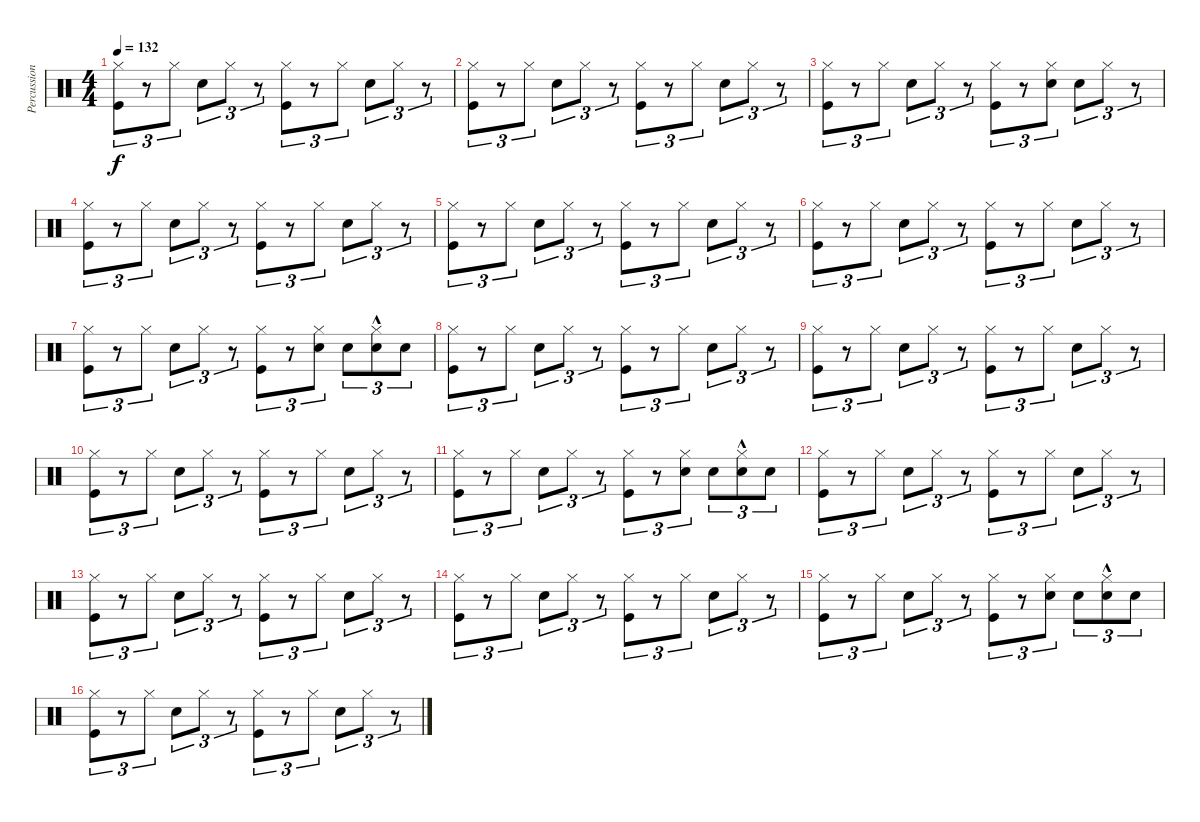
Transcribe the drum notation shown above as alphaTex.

\track ("Percussions" "Percussion") {instrument percussion}
\staff {score}
\articulation defaults
\ts (4 4)
\tempo 132
\clef neutral
\ks c
("Kick (hit)" "Hi-Hat (closed)").8{tu (3 2) dy f} r.8{tu (3 2)} "Hi-Hat (closed)".8{tu (3 2)} "Snare (hit) 2".8{tu (3 2)} "Hi-Hat (closed)".8{tu (3 2)} r.8{tu (3 2)} ("Kick (hit)" "Hi-Hat (closed)").8{tu (3 2)} r.8{tu (3 2)} "Hi-Hat (closed)".8{tu (3 2)} "Snare (hit) 2".8{tu (3 2)} "Hi-Hat (closed)".8{tu (3 2)} r.8{tu (3 2)} |
("Kick (hit)" "Hi-Hat (closed)").8{tu (3 2)} r.8{tu (3 2)} "Hi-Hat (closed)".8{tu (3 2)} "Snare (hit) 2".8{tu (3 2)} "Hi-Hat (closed)".8{tu (3 2)} r.8{tu (3 2)} ("Kick (hit)" "Hi-Hat (closed)").8{tu (3 2)} r.8{tu (3 2)} "Hi-Hat (closed)".8{tu (3 2)} "Snare (hit) 2".8{tu (3 2)} "Hi-Hat (closed)".8{tu (3 2)} r.8{tu (3 2)} |
("Kick (hit)" "Hi-Hat (closed)").8{tu (3 2)} r.8{tu (3 2)} "Hi-Hat (closed)".8{tu (3 2)} "Snare (hit) 2".8{tu (3 2)} "Hi-Hat (closed)".8{tu (3 2)} r.8{tu (3 2)} ("Kick (hit)" "Hi-Hat (closed)").8{tu (3 2)} r.8{tu (3 2)} ("Hi-Hat (closed)" "Snare (hit) 2").8{tu (3 2)} "Snare (hit) 2".8{tu (3 2)} "Hi-Hat (closed)".8{tu (3 2)} r.8{tu (3 2)} |
("Kick (hit)" "Hi-Hat (closed)").8{tu (3 2)} r.8{tu (3 2)} "Hi-Hat (closed)".8{tu (3 2)} "Snare (hit) 2".8{tu (3 2)} "Hi-Hat (closed)".8{tu (3 2)} r.8{tu (3 2)} ("Kick (hit)" "Hi-Hat (closed)").8{tu (3 2)} r.8{tu (3 2)} "Hi-Hat (closed)".8{tu (3 2)} "Snare (hit) 2".8{tu (3 2)} "Hi-Hat (closed)".8{tu (3 2)} r.8{tu (3 2)} |
("Kick (hit)" "Hi-Hat (closed)").8{tu (3 2)} r.8{tu (3 2)} "Hi-Hat (closed)".8{tu (3 2)} "Snare (hit) 2".8{tu (3 2)} "Hi-Hat (closed)".8{tu (3 2)} r.8{tu (3 2)} ("Kick (hit)" "Hi-Hat (closed)").8{tu (3 2)} r.8{tu (3 2)} "Hi-Hat (closed)".8{tu (3 2)} "Snare (hit) 2".8{tu (3 2)} "Hi-Hat (closed)".8{tu (3 2)} r.8{tu (3 2)} |
("Kick (hit)" "Hi-Hat (closed)").8{tu (3 2)} r.8{tu (3 2)} "Hi-Hat (closed)".8{tu (3 2)} "Snare (hit) 2".8{tu (3 2)} "Hi-Hat (closed)".8{tu (3 2)} r.8{tu (3 2)} ("Kick (hit)" "Hi-Hat (closed)").8{tu (3 2)} r.8{tu (3 2)} "Hi-Hat (closed)".8{tu (3 2)} "Snare (hit) 2".8{tu (3 2)} "Hi-Hat (closed)".8{tu (3 2)} r.8{tu (3 2)} |
("Kick (hit)" "Hi-Hat (closed)").8{tu (3 2)} r.8{tu (3 2)} "Hi-Hat (closed)".8{tu (3 2)} "Snare (hit) 2".8{tu (3 2)} "Hi-Hat (closed)".8{tu (3 2)} r.8{tu (3 2)} ("Kick (hit)" "Hi-Hat (closed)").8{tu (3 2)} r.8{tu (3 2)} ("Hi-Hat (closed)" "Snare (hit) 2").8{tu (3 2)} "Snare (hit) 2".8{tu (3 2)} ("Hi-Hat (closed)"{hac} "Snare (hit) 2"{hac}).8{tu (3 2)} "Snare (hit) 2".8{tu (3 2)} |
("Kick (hit)" "Hi-Hat (closed)").8{tu (3 2)} r.8{tu (3 2)} "Hi-Hat (closed)".8{tu (3 2)} "Snare (hit) 2".8{tu (3 2)} "Hi-Hat (closed)".8{tu (3 2)} r.8{tu (3 2)} ("Kick (hit)" "Hi-Hat (closed)").8{tu (3 2)} r.8{tu (3 2)} "Hi-Hat (closed)".8{tu (3 2)} "Snare (hit) 2".8{tu (3 2)} "Hi-Hat (closed)".8{tu (3 2)} r.8{tu (3 2)} |
("Kick (hit)" "Hi-Hat (closed)").8{tu (3 2)} r.8{tu (3 2)} "Hi-Hat (closed)".8{tu (3 2)} "Snare (hit) 2".8{tu (3 2)} "Hi-Hat (closed)".8{tu (3 2)} r.8{tu (3 2)} ("Kick (hit)" "Hi-Hat (closed)").8{tu (3 2)} r.8{tu (3 2)} "Hi-Hat (closed)".8{tu (3 2)} "Snare (hit) 2".8{tu (3 2)} "Hi-Hat (closed)".8{tu (3 2)} r.8{tu (3 2)} |
("Kick (hit)" "Hi-Hat (closed)").8{tu (3 2)} r.8{tu (3 2)} "Hi-Hat (closed)".8{tu (3 2)} "Snare (hit) 2".8{tu (3 2)} "Hi-Hat (closed)".8{tu (3 2)} r.8{tu (3 2)} ("Kick (hit)" "Hi-Hat (closed)").8{tu (3 2)} r.8{tu (3 2)} "Hi-Hat (closed)".8{tu (3 2)} "Snare (hit) 2".8{tu (3 2)} "Hi-Hat (closed)".8{tu (3 2)} r.8{tu (3 2)} |
("Kick (hit)" "Hi-Hat (closed)").8{tu (3 2)} r.8{tu (3 2)} "Hi-Hat (closed)".8{tu (3 2)} "Snare (hit) 2".8{tu (3 2)} "Hi-Hat (closed)".8{tu (3 2)} r.8{tu (3 2)} ("Kick (hit)" "Hi-Hat (closed)").8{tu (3 2)} r.8{tu (3 2)} ("Hi-Hat (closed)" "Snare (hit) 2").8{tu (3 2)} "Snare (hit) 2".8{tu (3 2)} ("Hi-Hat (closed)"{hac} "Snare (hit) 2"{hac}).8{tu (3 2)} "Snare (hit) 2".8{tu (3 2)} |
("Kick (hit)" "Hi-Hat (closed)").8{tu (3 2)} r.8{tu (3 2)} "Hi-Hat (closed)".8{tu (3 2)} "Snare (hit) 2".8{tu (3 2)} "Hi-Hat (closed)".8{tu (3 2)} r.8{tu (3 2)} ("Kick (hit)" "Hi-Hat (closed)").8{tu (3 2)} r.8{tu (3 2)} "Hi-Hat (closed)".8{tu (3 2)} "Snare (hit) 2".8{tu (3 2)} "Hi-Hat (closed)".8{tu (3 2)} r.8{tu (3 2)} |
("Kick (hit)" "Hi-Hat (closed)").8{tu (3 2)} r.8{tu (3 2)} "Hi-Hat (closed)".8{tu (3 2)} "Snare (hit) 2".8{tu (3 2)} "Hi-Hat (closed)".8{tu (3 2)} r.8{tu (3 2)} ("Kick (hit)" "Hi-Hat (closed)").8{tu (3 2)} r.8{tu (3 2)} "Hi-Hat (closed)".8{tu (3 2)} "Snare (hit) 2".8{tu (3 2)} "Hi-Hat (closed)".8{tu (3 2)} r.8{tu (3 2)} |
("Kick (hit)" "Hi-Hat (closed)").8{tu (3 2)} r.8{tu (3 2)} "Hi-Hat (closed)".8{tu (3 2)} "Snare (hit) 2".8{tu (3 2)} "Hi-Hat (closed)".8{tu (3 2)} r.8{tu (3 2)} ("Kick (hit)" "Hi-Hat (closed)").8{tu (3 2)} r.8{tu (3 2)} "Hi-Hat (closed)".8{tu (3 2)} "Snare (hit) 2".8{tu (3 2)} "Hi-Hat (closed)".8{tu (3 2)} r.8{tu (3 2)} |
("Kick (hit)" "Hi-Hat (closed)").8{tu (3 2)} r.8{tu (3 2)} "Hi-Hat (closed)".8{tu (3 2)} "Snare (hit) 2".8{tu (3 2)} "Hi-Hat (closed)".8{tu (3 2)} r.8{tu (3 2)} ("Kick (hit)" "Hi-Hat (closed)").8{tu (3 2)} r.8{tu (3 2)} ("Hi-Hat (closed)" "Snare (hit) 2").8{tu (3 2)} "Snare (hit) 2".8{tu (3 2)} ("Hi-Hat (closed)"{hac} "Snare (hit) 2"{hac}).8{tu (3 2)} "Snare (hit) 2".8{tu (3 2)} |
("Kick (hit)" "Hi-Hat (closed)").8{tu (3 2)} r.8{tu (3 2)} "Hi-Hat (closed)".8{tu (3 2)} "Snare (hit) 2".8{tu (3 2)} "Hi-Hat (closed)".8{tu (3 2)} r.8{tu (3 2)} ("Kick (hit)" "Hi-Hat (closed)").8{tu (3 2)} r.8{tu (3 2)} "Hi-Hat (closed)".8{tu (3 2)} "Snare (hit) 2".8{tu (3 2)} "Hi-Hat (closed)".8{tu (3 2)} r.8{tu (3 2)}
